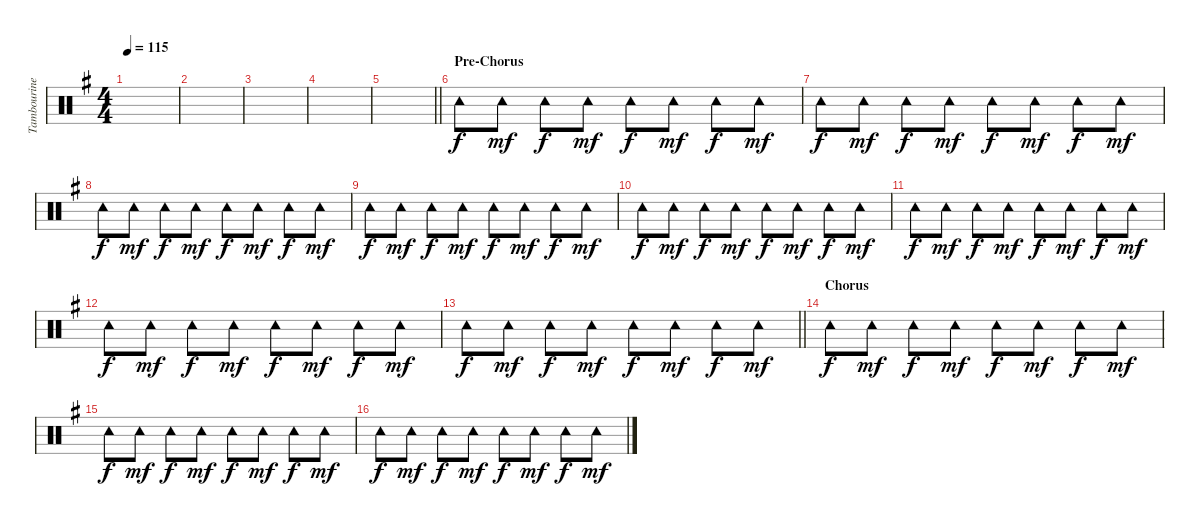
\track ("Tambourine" "Tambourine") {instrument percussion}
\staff {score}
\articulation defaults
\ts (4 4)
\tempo 115
\clef neutral
\ks g
|
|
|
|
\barLineRight lightlight
|
\section ("" "Pre-Chorus")
"Tambourine (hit)".8{dy f} "Tambourine (hit)".8{dy mf} "Tambourine (hit)".8{dy f} "Tambourine (hit)".8{dy mf} "Tambourine (hit)".8{dy f} "Tambourine (hit)".8{dy mf} "Tambourine (hit)".8{dy f} "Tambourine (hit)".8{dy mf} |
"Tambourine (hit)".8{dy f} "Tambourine (hit)".8{dy mf} "Tambourine (hit)".8{dy f} "Tambourine (hit)".8{dy mf} "Tambourine (hit)".8{dy f} "Tambourine (hit)".8{dy mf} "Tambourine (hit)".8{dy f} "Tambourine (hit)".8{dy mf} |
"Tambourine (hit)".8{dy f} "Tambourine (hit)".8{dy mf} "Tambourine (hit)".8{dy f} "Tambourine (hit)".8{dy mf} "Tambourine (hit)".8{dy f} "Tambourine (hit)".8{dy mf} "Tambourine (hit)".8{dy f} "Tambourine (hit)".8{dy mf} |
"Tambourine (hit)".8{dy f} "Tambourine (hit)".8{dy mf} "Tambourine (hit)".8{dy f} "Tambourine (hit)".8{dy mf} "Tambourine (hit)".8{dy f} "Tambourine (hit)".8{dy mf} "Tambourine (hit)".8{dy f} "Tambourine (hit)".8{dy mf} |
"Tambourine (hit)".8{dy f} "Tambourine (hit)".8{dy mf} "Tambourine (hit)".8{dy f} "Tambourine (hit)".8{dy mf} "Tambourine (hit)".8{dy f} "Tambourine (hit)".8{dy mf} "Tambourine (hit)".8{dy f} "Tambourine (hit)".8{dy mf} |
"Tambourine (hit)".8{dy f} "Tambourine (hit)".8{dy mf} "Tambourine (hit)".8{dy f} "Tambourine (hit)".8{dy mf} "Tambourine (hit)".8{dy f} "Tambourine (hit)".8{dy mf} "Tambourine (hit)".8{dy f} "Tambourine (hit)".8{dy mf} |
"Tambourine (hit)".8{dy f} "Tambourine (hit)".8{dy mf} "Tambourine (hit)".8{dy f} "Tambourine (hit)".8{dy mf} "Tambourine (hit)".8{dy f} "Tambourine (hit)".8{dy mf} "Tambourine (hit)".8{dy f} "Tambourine (hit)".8{dy mf} |
\barLineRight lightlight "Tambourine (hit)".8{dy f} "Tambourine (hit)".8{dy mf} "Tambourine (hit)".8{dy f} "Tambourine (hit)".8{dy mf} "Tambourine (hit)".8{dy f} "Tambourine (hit)".8{dy mf} "Tambourine (hit)".8{dy f} "Tambourine (hit)".8{dy mf}
|
\section ("" "Chorus")
"Tambourine (hit)".8{dy f} "Tambourine (hit)".8{dy mf} "Tambourine (hit)".8{dy f} "Tambourine (hit)".8{dy mf} "Tambourine (hit)".8{dy f} "Tambourine (hit)".8{dy mf} "Tambourine (hit)".8{dy f} "Tambourine (hit)".8{dy mf} |
"Tambourine (hit)".8{dy f} "Tambourine (hit)".8{dy mf} "Tambourine (hit)".8{dy f} "Tambourine (hit)".8{dy mf} "Tambourine (hit)".8{dy f} "Tambourine (hit)".8{dy mf} "Tambourine (hit)".8{dy f} "Tambourine (hit)".8{dy mf} |
"Tambourine (hit)".8{dy f} "Tambourine (hit)".8{dy mf} "Tambourine (hit)".8{dy f} "Tambourine (hit)".8{dy mf} "Tambourine (hit)".8{dy f} "Tambourine (hit)".8{dy mf} "Tambourine (hit)".8{dy f} "Tambourine (hit)".8{dy mf}
